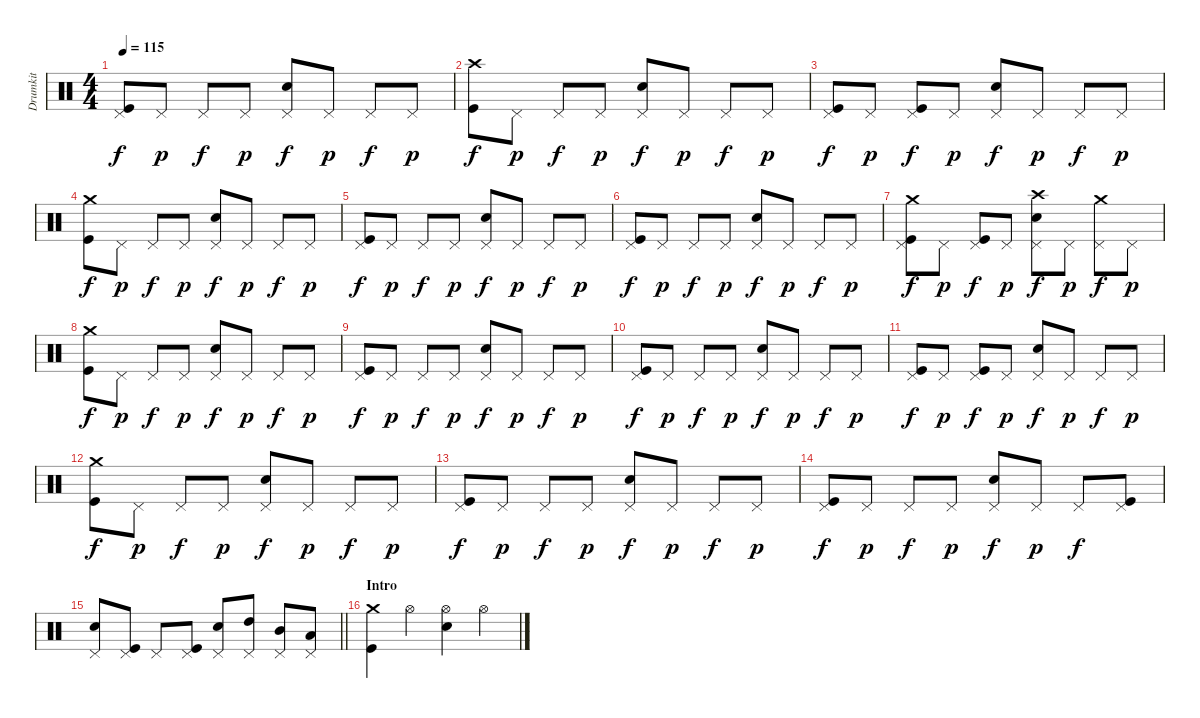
\track ("Drumkit" "Drumkit") {instrument percussion}
\staff {score}
\articulation defaults
\ts (4 4)
\tempo 115
\clef neutral
\ks c
("Kick (hit)" "Pedal Hi-Hat (hit)").8{dy f} "Pedal Hi-Hat (hit)".8{dy p} "Pedal Hi-Hat (hit)".8{dy f} "Pedal Hi-Hat (hit)".8{dy p} ("Pedal Hi-Hat (hit)" "Snare (hit) 2").8{dy f} "Pedal Hi-Hat (hit)".8{dy p} "Pedal Hi-Hat (hit)".8{dy f} "Pedal Hi-Hat (hit)".8{dy p} |
("Kick (hit)" "Crash high (hit)").8{dy f} "Pedal Hi-Hat (hit)".8{dy p} "Pedal Hi-Hat (hit)".8{dy f} "Pedal Hi-Hat (hit)".8{dy p} ("Pedal Hi-Hat (hit)" "Snare (hit) 2").8{dy f} "Pedal Hi-Hat (hit)".8{dy p} "Pedal Hi-Hat (hit)".8{dy f} "Pedal Hi-Hat (hit)".8{dy p} |
("Kick (hit)" "Pedal Hi-Hat (hit)").8{dy f} "Pedal Hi-Hat (hit)".8{dy p} ("Kick (hit)" "Pedal Hi-Hat (hit)").8{dy f} "Pedal Hi-Hat (hit)".8{dy p} ("Pedal Hi-Hat (hit)" "Snare (hit) 2").8{dy f} "Pedal Hi-Hat (hit)".8{dy p} "Pedal Hi-Hat (hit)".8{dy f} "Pedal Hi-Hat (hit)".8{dy p} |
("Kick (hit)" "Crash medium (hit)").8{dy f} "Pedal Hi-Hat (hit)".8{dy p} "Pedal Hi-Hat (hit)".8{dy f} "Pedal Hi-Hat (hit)".8{dy p} ("Pedal Hi-Hat (hit)" "Snare (hit) 2").8{dy f} "Pedal Hi-Hat (hit)".8{dy p} "Pedal Hi-Hat (hit)".8{dy f} "Pedal Hi-Hat (hit)".8{dy p} |
("Kick (hit)" "Pedal Hi-Hat (hit)").8{dy f} "Pedal Hi-Hat (hit)".8{dy p} "Pedal Hi-Hat (hit)".8{dy f} "Pedal Hi-Hat (hit)".8{dy p} ("Pedal Hi-Hat (hit)" "Snare (hit) 2").8{dy f} "Pedal Hi-Hat (hit)".8{dy p} "Pedal Hi-Hat (hit)".8{dy f} "Pedal Hi-Hat (hit)".8{dy p} |
("Kick (hit)" "Pedal Hi-Hat (hit)").8{dy f} "Pedal Hi-Hat (hit)".8{dy p} "Pedal Hi-Hat (hit)".8{dy f} "Pedal Hi-Hat (hit)".8{dy p} ("Pedal Hi-Hat (hit)" "Snare (hit) 2").8{dy f} "Pedal Hi-Hat (hit)".8{dy p} "Pedal Hi-Hat (hit)".8{dy f} "Pedal Hi-Hat (hit)".8{dy p} |
("Kick (hit)" "Crash medium (hit)" "Pedal Hi-Hat (hit)").8{dy f} "Pedal Hi-Hat (hit)".8{dy p} ("Kick (hit)" "Pedal Hi-Hat (hit)").8{dy f} "Pedal Hi-Hat (hit)".8{dy p} ("Crash high (hit)" "Pedal Hi-Hat (hit)" "Snare (hit) 2").8{dy f} "Pedal Hi-Hat (hit)".8{dy p} ("Crash medium (hit)" "Pedal Hi-Hat (hit)").8{dy f} "Pedal Hi-Hat (hit)".8{dy p} |
("Kick (hit)" "Crash medium (hit)").8{dy f} "Pedal Hi-Hat (hit)".8{dy p} "Pedal Hi-Hat (hit)".8{dy f} "Pedal Hi-Hat (hit)".8{dy p} ("Pedal Hi-Hat (hit)" "Snare (hit) 2").8{dy f} "Pedal Hi-Hat (hit)".8{dy p} "Pedal Hi-Hat (hit)".8{dy f} "Pedal Hi-Hat (hit)".8{dy p} |
("Kick (hit)" "Pedal Hi-Hat (hit)").8{dy f} "Pedal Hi-Hat (hit)".8{dy p} "Pedal Hi-Hat (hit)".8{dy f} "Pedal Hi-Hat (hit)".8{dy p} ("Pedal Hi-Hat (hit)" "Snare (hit) 2").8{dy f} "Pedal Hi-Hat (hit)".8{dy p} "Pedal Hi-Hat (hit)".8{dy f} "Pedal Hi-Hat (hit)".8{dy p} |
("Kick (hit)" "Pedal Hi-Hat (hit)").8{dy f} "Pedal Hi-Hat (hit)".8{dy p} "Pedal Hi-Hat (hit)".8{dy f} "Pedal Hi-Hat (hit)".8{dy p} ("Pedal Hi-Hat (hit)" "Snare (hit) 2").8{dy f} "Pedal Hi-Hat (hit)".8{dy p} "Pedal Hi-Hat (hit)".8{dy f} "Pedal Hi-Hat (hit)".8{dy p} |
("Kick (hit)" "Pedal Hi-Hat (hit)").8{dy f} "Pedal Hi-Hat (hit)".8{dy p} ("Kick (hit)" "Pedal Hi-Hat (hit)").8{dy f} "Pedal Hi-Hat (hit)".8{dy p} ("Pedal Hi-Hat (hit)" "Snare (hit) 2").8{dy f} "Pedal Hi-Hat (hit)".8{dy p} "Pedal Hi-Hat (hit)".8{dy f} "Pedal Hi-Hat (hit)".8{dy p} |
("Kick (hit)" "Crash medium (hit)").8{dy f} "Pedal Hi-Hat (hit)".8{dy p} "Pedal Hi-Hat (hit)".8{dy f} "Pedal Hi-Hat (hit)".8{dy p} ("Pedal Hi-Hat (hit)" "Snare (hit) 2").8{dy f} "Pedal Hi-Hat (hit)".8{dy p} "Pedal Hi-Hat (hit)".8{dy f} "Pedal Hi-Hat (hit)".8{dy p} |
("Kick (hit)" "Pedal Hi-Hat (hit)").8{dy f} "Pedal Hi-Hat (hit)".8{dy p} "Pedal Hi-Hat (hit)".8{dy f} "Pedal Hi-Hat (hit)".8{dy p} ("Pedal Hi-Hat (hit)" "Snare (hit) 2").8{dy f} "Pedal Hi-Hat (hit)".8{dy p} "Pedal Hi-Hat (hit)".8{dy f} "Pedal Hi-Hat (hit)".8{dy p} |
("Kick (hit)" "Pedal Hi-Hat (hit)").8{dy f} "Pedal Hi-Hat (hit)".8{dy p} "Pedal Hi-Hat (hit)".8{dy f} "Pedal Hi-Hat (hit)".8{dy p} ("Pedal Hi-Hat (hit)" "Snare (hit) 2").8{dy f} "Pedal Hi-Hat (hit)".8{dy p} "Pedal Hi-Hat (hit)".8{dy f} ("Kick (hit)" "Pedal Hi-Hat (hit)").8 |
\barLineRight lightlight
("Pedal Hi-Hat (hit)" "Snare (hit) 2").8 ("Kick (hit)" "Pedal Hi-Hat (hit)").8 "Pedal Hi-Hat (hit)".8 ("Kick (hit)" "Pedal Hi-Hat (hit)").8 ("Pedal Hi-Hat (hit)" "Snare (hit) 2").8 ("High Tom (hit)" "Pedal Hi-Hat (hit)").8 ("Mid Tom (hit)" "Pedal Hi-Hat (hit)").8 ("Low Tom (hit)" "Pedal Hi-Hat (hit)").8 |
\section ("" "Intro")
("Kick (hit)" "Crash medium (hit)").4 "Hi-Hat (open)".4 ("Hi-Hat (open)" "Snare (hit) 2").4 "Hi-Hat (open)".4
